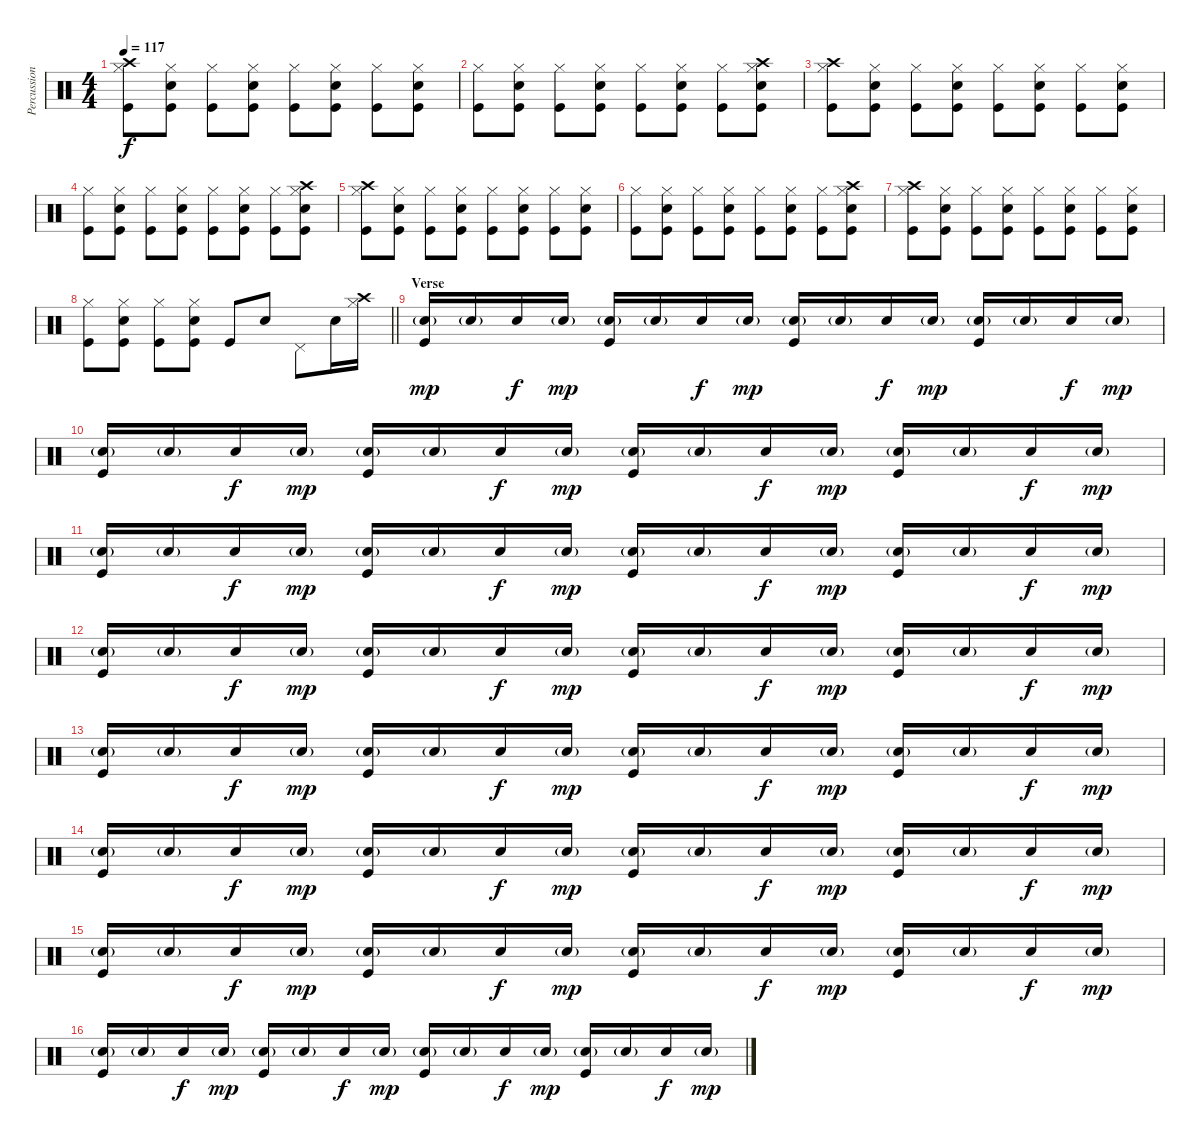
\track ("Percussion" "Percussion") {instrument percussion}
\staff {score}
\articulation defaults
\ts (4 4)
\tempo 117
\clef neutral
\ks c
("Crash high (hit)" "Hi-Hat (closed)" "Kick (hit)").8{dy f} ("Hi-Hat (closed)" "Snare (hit) 2" "Kick (hit)").8 ("Hi-Hat (closed)" "Kick (hit)").8 ("Hi-Hat (closed)" "Snare (hit) 2" "Kick (hit)").8 ("Hi-Hat (closed)" "Kick (hit)").8 ("Hi-Hat (closed)" "Snare (hit) 2" "Kick (hit)").8 ("Hi-Hat (closed)" "Kick (hit)").8 ("Hi-Hat (closed)" "Snare (hit) 2" "Kick (hit)").8 |
("Hi-Hat (closed)" "Kick (hit)").8 ("Hi-Hat (closed)" "Snare (hit) 2" "Kick (hit)").8 ("Hi-Hat (closed)" "Kick (hit)").8 ("Hi-Hat (closed)" "Snare (hit) 2" "Kick (hit)").8 ("Hi-Hat (closed)" "Kick (hit)").8 ("Hi-Hat (closed)" "Snare (hit) 2" "Kick (hit)").8 ("Hi-Hat (closed)" "Kick (hit)").8 ("Crash high (hit)" "Hi-Hat (closed)" "Snare (hit) 2" "Kick (hit)").8 |
("Crash high (hit)" "Hi-Hat (closed)" "Kick (hit)").8 ("Hi-Hat (closed)" "Snare (hit) 2" "Kick (hit)").8 ("Hi-Hat (closed)" "Kick (hit)").8 ("Hi-Hat (closed)" "Snare (hit) 2" "Kick (hit)").8 ("Hi-Hat (closed)" "Kick (hit)").8 ("Hi-Hat (closed)" "Snare (hit) 2" "Kick (hit)").8 ("Hi-Hat (closed)" "Kick (hit)").8 ("Hi-Hat (closed)" "Snare (hit) 2" "Kick (hit)").8 |
("Hi-Hat (closed)" "Kick (hit)").8 ("Hi-Hat (closed)" "Snare (hit) 2" "Kick (hit)").8 ("Hi-Hat (closed)" "Kick (hit)").8 ("Hi-Hat (closed)" "Snare (hit) 2" "Kick (hit)").8 ("Hi-Hat (closed)" "Kick (hit)").8 ("Hi-Hat (closed)" "Snare (hit) 2" "Kick (hit)").8 ("Hi-Hat (closed)" "Kick (hit)").8 ("Crash high (hit)" "Hi-Hat (closed)" "Snare (hit) 2" "Kick (hit)").8 |
("Crash high (hit)" "Hi-Hat (closed)" "Kick (hit)").8 ("Hi-Hat (closed)" "Snare (hit) 2" "Kick (hit)").8 ("Hi-Hat (closed)" "Kick (hit)").8 ("Hi-Hat (closed)" "Snare (hit) 2" "Kick (hit)").8 ("Hi-Hat (closed)" "Kick (hit)").8 ("Hi-Hat (closed)" "Snare (hit) 2" "Kick (hit)").8 ("Hi-Hat (closed)" "Kick (hit)").8 ("Hi-Hat (closed)" "Snare (hit) 2" "Kick (hit)").8 |
("Hi-Hat (closed)" "Kick (hit)").8 ("Hi-Hat (closed)" "Snare (hit) 2" "Kick (hit)").8 ("Hi-Hat (closed)" "Kick (hit)").8 ("Hi-Hat (closed)" "Snare (hit) 2" "Kick (hit)").8 ("Hi-Hat (closed)" "Kick (hit)").8 ("Hi-Hat (closed)" "Snare (hit) 2" "Kick (hit)").8 ("Hi-Hat (closed)" "Kick (hit)").8 ("Crash high (hit)" "Hi-Hat (closed)" "Snare (hit) 2" "Kick (hit)").8 |
("Crash high (hit)" "Hi-Hat (closed)" "Kick (hit)").8 ("Hi-Hat (closed)" "Snare (hit) 2" "Kick (hit)").8 ("Hi-Hat (closed)" "Kick (hit)").8 ("Hi-Hat (closed)" "Snare (hit) 2" "Kick (hit)").8 ("Hi-Hat (closed)" "Kick (hit)").8 ("Hi-Hat (closed)" "Snare (hit) 2" "Kick (hit)").8 ("Hi-Hat (closed)" "Kick (hit)").8 ("Hi-Hat (closed)" "Snare (hit) 2" "Kick (hit)").8 |
\barLineRight lightlight
("Hi-Hat (closed)" "Kick (hit)").8 ("Hi-Hat (closed)" "Snare (hit) 2" "Kick (hit)").8 ("Hi-Hat (closed)" "Kick (hit)").8 ("Hi-Hat (closed)" "Snare (hit) 2" "Kick (hit)").8 "Kick (hit)".8 "Snare (hit) 2".8 "Pedal Hi-Hat (hit)".8 "Snare (hit) 2".16 ("Crash high (hit)" "Hi-Hat (closed)").16 |
\section ("" "Verse")
("Snare (hit) 2"{g} "Kick (hit)").16{dy mp} "Snare (hit) 2"{g}.16 "Snare (hit) 2".16{dy f} "Snare (hit) 2"{g}.16{dy mp} ("Snare (hit) 2"{g} "Kick (hit)").16 "Snare (hit) 2"{g}.16 "Snare (hit) 2".16{dy f} "Snare (hit) 2"{g}.16{dy mp} ("Snare (hit) 2"{g} "Kick (hit)").16 "Snare (hit) 2"{g}.16 "Snare (hit) 2".16{dy f} "Snare (hit) 2"{g}.16{dy mp} ("Snare (hit) 2"{g} "Kick (hit)").16 "Snare (hit) 2"{g}.16 "Snare (hit) 2".16{dy f} "Snare (hit) 2"{g}.16{dy mp} |
("Snare (hit) 2"{g} "Kick (hit)").16 "Snare (hit) 2"{g}.16 "Snare (hit) 2".16{dy f} "Snare (hit) 2"{g}.16{dy mp} ("Snare (hit) 2"{g} "Kick (hit)").16 "Snare (hit) 2"{g}.16 "Snare (hit) 2".16{dy f} "Snare (hit) 2"{g}.16{dy mp} ("Snare (hit) 2"{g} "Kick (hit)").16 "Snare (hit) 2"{g}.16 "Snare (hit) 2".16{dy f} "Snare (hit) 2"{g}.16{dy mp} ("Snare (hit) 2"{g} "Kick (hit)").16 "Snare (hit) 2"{g}.16 "Snare (hit) 2".16{dy f} "Snare (hit) 2"{g}.16{dy mp} |
("Snare (hit) 2"{g} "Kick (hit)").16 "Snare (hit) 2"{g}.16 "Snare (hit) 2".16{dy f} "Snare (hit) 2"{g}.16{dy mp} ("Snare (hit) 2"{g} "Kick (hit)").16 "Snare (hit) 2"{g}.16 "Snare (hit) 2".16{dy f} "Snare (hit) 2"{g}.16{dy mp} ("Snare (hit) 2"{g} "Kick (hit)").16 "Snare (hit) 2"{g}.16 "Snare (hit) 2".16{dy f} "Snare (hit) 2"{g}.16{dy mp} ("Snare (hit) 2"{g} "Kick (hit)").16 "Snare (hit) 2"{g}.16 "Snare (hit) 2".16{dy f} "Snare (hit) 2"{g}.16{dy mp} |
("Snare (hit) 2"{g} "Kick (hit)").16 "Snare (hit) 2"{g}.16 "Snare (hit) 2".16{dy f} "Snare (hit) 2"{g}.16{dy mp} ("Snare (hit) 2"{g} "Kick (hit)").16 "Snare (hit) 2"{g}.16 "Snare (hit) 2".16{dy f} "Snare (hit) 2"{g}.16{dy mp} ("Snare (hit) 2"{g} "Kick (hit)").16 "Snare (hit) 2"{g}.16 "Snare (hit) 2".16{dy f} "Snare (hit) 2"{g}.16{dy mp} ("Snare (hit) 2"{g} "Kick (hit)").16 "Snare (hit) 2"{g}.16 "Snare (hit) 2".16{dy f} "Snare (hit) 2"{g}.16{dy mp} |
("Snare (hit) 2"{g} "Kick (hit)").16 "Snare (hit) 2"{g}.16 "Snare (hit) 2".16{dy f} "Snare (hit) 2"{g}.16{dy mp} ("Snare (hit) 2"{g} "Kick (hit)").16 "Snare (hit) 2"{g}.16 "Snare (hit) 2".16{dy f} "Snare (hit) 2"{g}.16{dy mp} ("Snare (hit) 2"{g} "Kick (hit)").16 "Snare (hit) 2"{g}.16 "Snare (hit) 2".16{dy f} "Snare (hit) 2"{g}.16{dy mp} ("Snare (hit) 2"{g} "Kick (hit)").16 "Snare (hit) 2"{g}.16 "Snare (hit) 2".16{dy f} "Snare (hit) 2"{g}.16{dy mp} |
("Snare (hit) 2"{g} "Kick (hit)").16 "Snare (hit) 2"{g}.16 "Snare (hit) 2".16{dy f} "Snare (hit) 2"{g}.16{dy mp} ("Snare (hit) 2"{g} "Kick (hit)").16 "Snare (hit) 2"{g}.16 "Snare (hit) 2".16{dy f} "Snare (hit) 2"{g}.16{dy mp} ("Snare (hit) 2"{g} "Kick (hit)").16 "Snare (hit) 2"{g}.16 "Snare (hit) 2".16{dy f} "Snare (hit) 2"{g}.16{dy mp} ("Snare (hit) 2"{g} "Kick (hit)").16 "Snare (hit) 2"{g}.16 "Snare (hit) 2".16{dy f} "Snare (hit) 2"{g}.16{dy mp} |
("Snare (hit) 2"{g} "Kick (hit)").16 "Snare (hit) 2"{g}.16 "Snare (hit) 2".16{dy f} "Snare (hit) 2"{g}.16{dy mp} ("Snare (hit) 2"{g} "Kick (hit)").16 "Snare (hit) 2"{g}.16 "Snare (hit) 2".16{dy f} "Snare (hit) 2"{g}.16{dy mp} ("Snare (hit) 2"{g} "Kick (hit)").16 "Snare (hit) 2"{g}.16 "Snare (hit) 2".16{dy f} "Snare (hit) 2"{g}.16{dy mp} ("Snare (hit) 2"{g} "Kick (hit)").16 "Snare (hit) 2"{g}.16 "Snare (hit) 2".16{dy f} "Snare (hit) 2"{g}.16{dy mp} |
("Snare (hit) 2"{g} "Kick (hit)").16 "Snare (hit) 2"{g}.16 "Snare (hit) 2".16{dy f} "Snare (hit) 2"{g}.16{dy mp} ("Snare (hit) 2"{g} "Kick (hit)").16 "Snare (hit) 2"{g}.16 "Snare (hit) 2".16{dy f} "Snare (hit) 2"{g}.16{dy mp} ("Snare (hit) 2"{g} "Kick (hit)").16 "Snare (hit) 2"{g}.16 "Snare (hit) 2".16{dy f} "Snare (hit) 2"{g}.16{dy mp} ("Snare (hit) 2"{g} "Kick (hit)").16 "Snare (hit) 2"{g}.16 "Snare (hit) 2".16{dy f} "Snare (hit) 2"{g}.16{dy mp}
